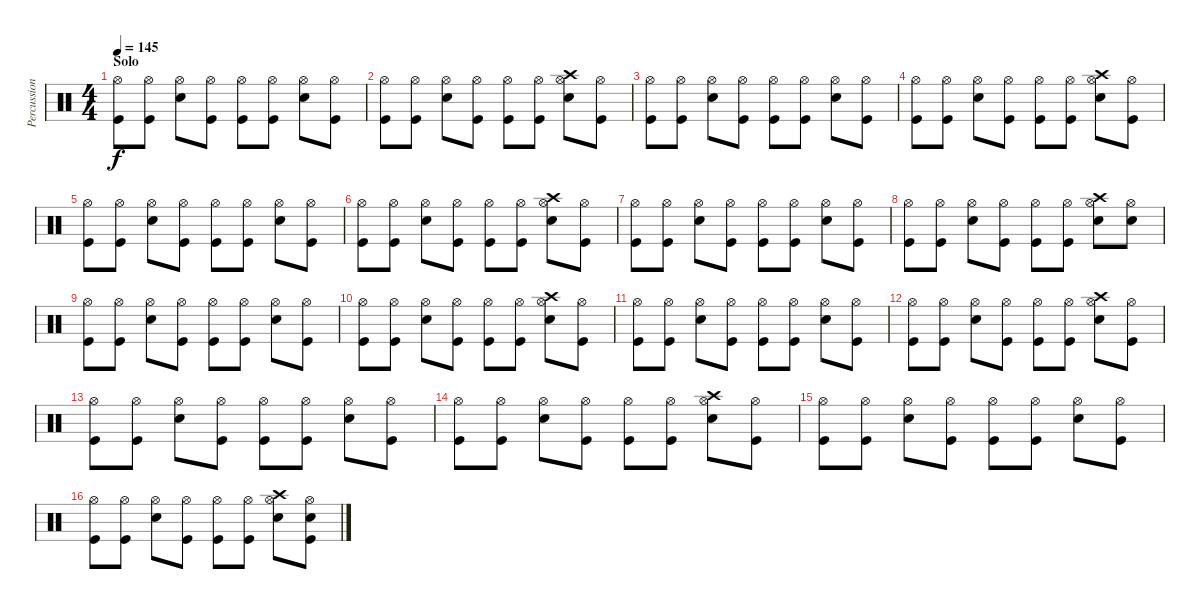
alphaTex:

\track ("Percussion" "Percussion") {instrument percussion}
\staff {score}
\articulation defaults
\ts (4 4)
\section ("" "Solo")
\tempo 145
\clef neutral
\ks c
("Hi-Hat (open)" "Kick (hit)").8{dy f} ("Hi-Hat (open)" "Kick (hit)").8 ("Hi-Hat (open)" "Snare (hit) 2").8 ("Hi-Hat (open)" "Kick (hit)").8 ("Hi-Hat (open)" "Kick (hit)").8 ("Hi-Hat (open)" "Kick (hit)").8 ("Hi-Hat (open)" "Snare (hit) 2").8 ("Hi-Hat (open)" "Kick (hit)").8 |
("Hi-Hat (open)" "Kick (hit)").8 ("Hi-Hat (open)" "Kick (hit)").8 ("Hi-Hat (open)" "Snare (hit) 2").8 ("Hi-Hat (open)" "Kick (hit)").8 ("Hi-Hat (open)" "Kick (hit)").8 ("Hi-Hat (open)" "Kick (hit)").8 ("Hi-Hat (open)" "Snare (hit) 2" "Crash high (hit)").8 ("Hi-Hat (open)" "Kick (hit)").8 |
("Hi-Hat (open)" "Kick (hit)").8 ("Hi-Hat (open)" "Kick (hit)").8 ("Hi-Hat (open)" "Snare (hit) 2").8 ("Hi-Hat (open)" "Kick (hit)").8 ("Hi-Hat (open)" "Kick (hit)").8 ("Hi-Hat (open)" "Kick (hit)").8 ("Hi-Hat (open)" "Snare (hit) 2").8 ("Hi-Hat (open)" "Kick (hit)").8 |
("Hi-Hat (open)" "Kick (hit)").8 ("Hi-Hat (open)" "Kick (hit)").8 ("Hi-Hat (open)" "Snare (hit) 2").8 ("Hi-Hat (open)" "Kick (hit)").8 ("Hi-Hat (open)" "Kick (hit)").8 ("Hi-Hat (open)" "Kick (hit)").8 ("Hi-Hat (open)" "Snare (hit) 2" "Crash high (hit)").8 ("Hi-Hat (open)" "Kick (hit)").8 |
("Hi-Hat (open)" "Kick (hit)").8 ("Hi-Hat (open)" "Kick (hit)").8 ("Hi-Hat (open)" "Snare (hit) 2").8 ("Hi-Hat (open)" "Kick (hit)").8 ("Hi-Hat (open)" "Kick (hit)").8 ("Hi-Hat (open)" "Kick (hit)").8 ("Hi-Hat (open)" "Snare (hit) 2").8 ("Hi-Hat (open)" "Kick (hit)").8 |
("Hi-Hat (open)" "Kick (hit)").8 ("Hi-Hat (open)" "Kick (hit)").8 ("Hi-Hat (open)" "Snare (hit) 2").8 ("Hi-Hat (open)" "Kick (hit)").8 ("Hi-Hat (open)" "Kick (hit)").8 ("Hi-Hat (open)" "Kick (hit)").8 ("Hi-Hat (open)" "Snare (hit) 2" "Crash high (hit)").8 ("Hi-Hat (open)" "Kick (hit)").8 |
("Hi-Hat (open)" "Kick (hit)").8 ("Hi-Hat (open)" "Kick (hit)").8 ("Hi-Hat (open)" "Snare (hit) 2").8 ("Hi-Hat (open)" "Kick (hit)").8 ("Hi-Hat (open)" "Kick (hit)").8 ("Hi-Hat (open)" "Kick (hit)").8 ("Hi-Hat (open)" "Snare (hit) 2").8 ("Hi-Hat (open)" "Kick (hit)").8 |
("Hi-Hat (open)" "Kick (hit)").8 ("Hi-Hat (open)" "Kick (hit)").8 ("Hi-Hat (open)" "Snare (hit) 2").8 ("Hi-Hat (open)" "Kick (hit)").8 ("Hi-Hat (open)" "Kick (hit)").8 ("Hi-Hat (open)" "Kick (hit)").8 ("Hi-Hat (open)" "Snare (hit) 2" "Crash high (hit)").8 ("Hi-Hat (open)" "Snare (hit) 2").8 |
("Hi-Hat (open)" "Kick (hit)").8 ("Hi-Hat (open)" "Kick (hit)").8 ("Hi-Hat (open)" "Snare (hit) 2").8 ("Hi-Hat (open)" "Kick (hit)").8 ("Hi-Hat (open)" "Kick (hit)").8 ("Hi-Hat (open)" "Kick (hit)").8 ("Hi-Hat (open)" "Snare (hit) 2").8 ("Hi-Hat (open)" "Kick (hit)").8 |
("Hi-Hat (open)" "Kick (hit)").8 ("Hi-Hat (open)" "Kick (hit)").8 ("Hi-Hat (open)" "Snare (hit) 2").8 ("Hi-Hat (open)" "Kick (hit)").8 ("Hi-Hat (open)" "Kick (hit)").8 ("Hi-Hat (open)" "Kick (hit)").8 ("Hi-Hat (open)" "Snare (hit) 2" "Crash high (hit)").8 ("Hi-Hat (open)" "Kick (hit)").8 |
("Hi-Hat (open)" "Kick (hit)").8 ("Hi-Hat (open)" "Kick (hit)").8 ("Hi-Hat (open)" "Snare (hit) 2").8 ("Hi-Hat (open)" "Kick (hit)").8 ("Hi-Hat (open)" "Kick (hit)").8 ("Hi-Hat (open)" "Kick (hit)").8 ("Hi-Hat (open)" "Snare (hit) 2").8 ("Hi-Hat (open)" "Kick (hit)").8 |
("Hi-Hat (open)" "Kick (hit)").8 ("Hi-Hat (open)" "Kick (hit)").8 ("Hi-Hat (open)" "Snare (hit) 2").8 ("Hi-Hat (open)" "Kick (hit)").8 ("Hi-Hat (open)" "Kick (hit)").8 ("Hi-Hat (open)" "Kick (hit)").8 ("Hi-Hat (open)" "Snare (hit) 2" "Crash high (hit)").8 ("Hi-Hat (open)" "Kick (hit)").8 |
("Hi-Hat (open)" "Kick (hit)").8 ("Hi-Hat (open)" "Kick (hit)").8 ("Hi-Hat (open)" "Snare (hit) 2").8 ("Hi-Hat (open)" "Kick (hit)").8 ("Hi-Hat (open)" "Kick (hit)").8 ("Hi-Hat (open)" "Kick (hit)").8 ("Hi-Hat (open)" "Snare (hit) 2").8 ("Hi-Hat (open)" "Kick (hit)").8 |
("Hi-Hat (open)" "Kick (hit)").8 ("Hi-Hat (open)" "Kick (hit)").8 ("Hi-Hat (open)" "Snare (hit) 2").8 ("Hi-Hat (open)" "Kick (hit)").8 ("Hi-Hat (open)" "Kick (hit)").8 ("Hi-Hat (open)" "Kick (hit)").8 ("Hi-Hat (open)" "Snare (hit) 2" "Crash high (hit)").8 ("Hi-Hat (open)" "Kick (hit)").8 |
("Hi-Hat (open)" "Kick (hit)").8 ("Hi-Hat (open)" "Kick (hit)").8 ("Hi-Hat (open)" "Snare (hit) 2").8 ("Hi-Hat (open)" "Kick (hit)").8 ("Hi-Hat (open)" "Kick (hit)").8 ("Hi-Hat (open)" "Kick (hit)").8 ("Hi-Hat (open)" "Snare (hit) 2").8 ("Hi-Hat (open)" "Kick (hit)").8 |
("Hi-Hat (open)" "Kick (hit)").8 ("Hi-Hat (open)" "Kick (hit)").8 ("Hi-Hat (open)" "Snare (hit) 2").8 ("Hi-Hat (open)" "Kick (hit)").8 ("Hi-Hat (open)" "Kick (hit)").8 ("Hi-Hat (open)" "Kick (hit)").8 ("Hi-Hat (open)" "Snare (hit) 2" "Crash high (hit)").8 ("Hi-Hat (open)" "Snare (hit) 2" "Kick (hit)").8
